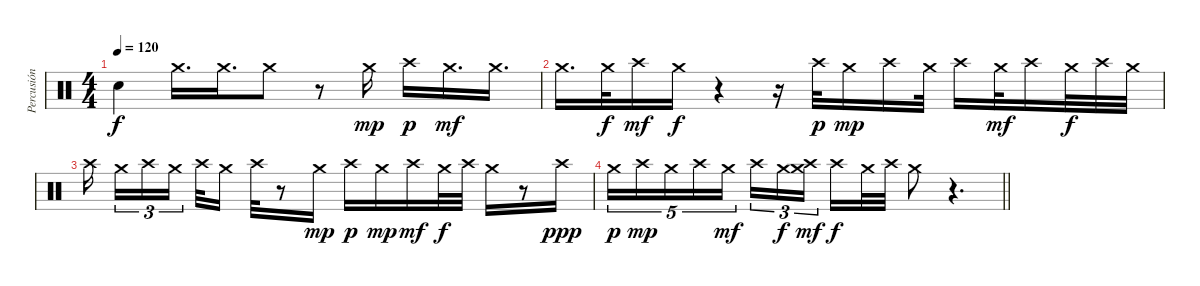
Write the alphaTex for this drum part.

\track ("Percusión" "Percusión") {instrument percussion}
\staff {score}
\articulation defaults
\ts (4 4)
\tempo 120
\clef neutral
\ks c "Snare (hit)"{t}.4{dy f} "Crash medium (hit)".16{d} "Crash medium (hit)".16{d} "Crash medium (hit)".8
r.8 "Crash medium (hit)".16{dy mp} "Crash high (hit)".16{dy p} "Crash medium (hit)".16{d dy mf} "Crash medium (hit)".16{d} |
"Crash medium (hit)".16{d} "Crash medium (hit)".32{dy f} "Crash high (hit)".16{dy mf} "Crash medium (hit)".16{dy f} r.4 r.16 "Crash high (hit)".32{dy p} "Crash medium (hit)".16{dy mp} "Crash high (hit)".16 "Crash medium (hit)".32 "Crash high (hit)".16 "Crash medium (hit)".32{dy mf} "Crash high (hit)".16 "Crash medium (hit)".32{dy f} "Crash high (hit)".32 "Crash medium (hit)".32 |
"Crash high (hit)".16{beam splitsecondary} "Crash medium (hit)".16{tu (3 2)} "Crash high (hit)".16{tu (3 2)} "Crash medium (hit)".16{tu (3 2) beam splitsecondary} "Crash high (hit)".32 "Crash medium (hit)".16 "Crash high (hit)".32 r.8 "Crash medium (hit)".16{dy mp} "Crash high (hit)".16{dy p} "Crash medium (hit)".16{dy mp} "Crash high (hit)".16{dy mf} "Crash medium (hit)".32{dy f} "Crash high (hit)".32 "Crash medium (hit)".16 r.8 "Crash high (hit)".16{dy ppp} |
\barLineRight lightlight "Crash medium (hit)".16{tu (5 4) dy p} "Crash high (hit)".16{tu (5 4) dy mp} "Crash medium (hit)".16{tu (5 4)} "Crash high (hit)".16{tu (5 4)} "Crash medium (hit)".16{tu (5 4) dy mf} "Crash high (hit)".16{tu (3 2)} "Crash medium (hit)".16{tu (3 2) dy f}
("Crash high (hit)" "Crash medium (hit)").16{tu (3 2) dy mf beam splitsecondary} "Crash high (hit)".16{dy f} "Crash medium (hit)".32 "Crash high (hit)".32 "Crash medium (hit)".8 r.4{d}
